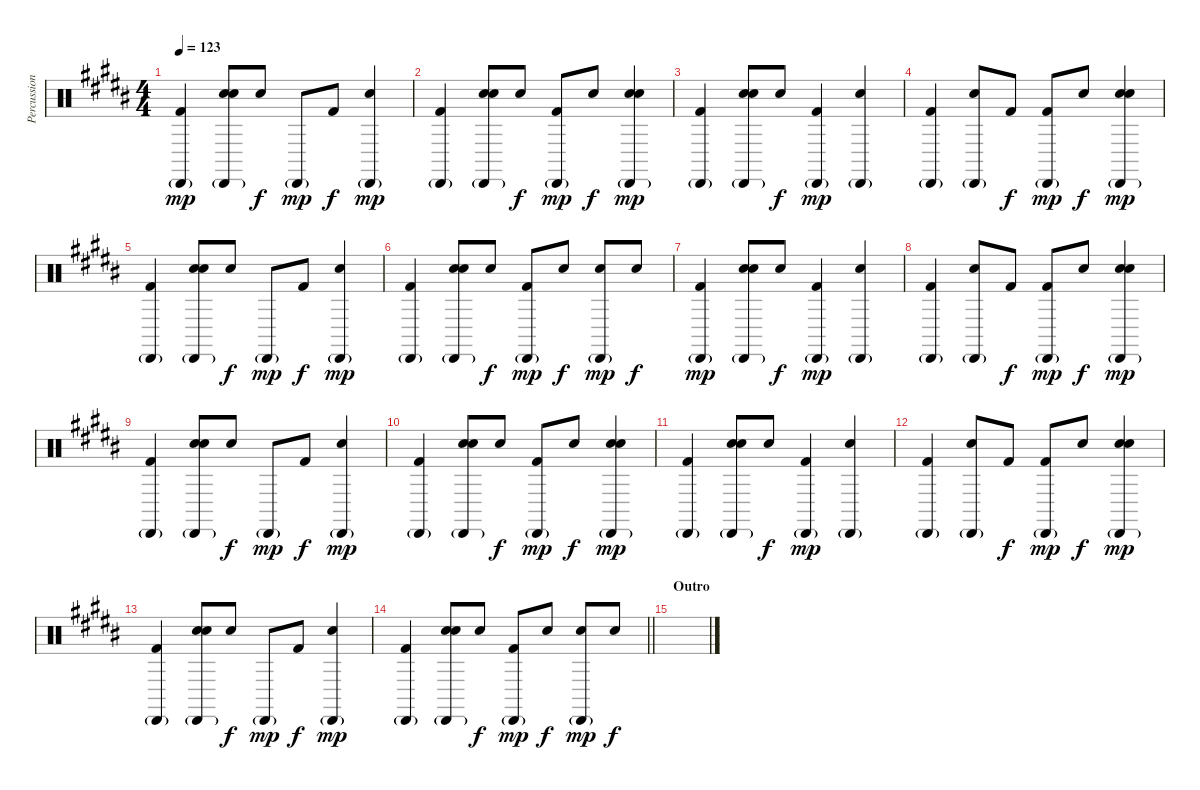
\track ("Percussion" "Percussion") {instrument percussion}
\staff {score}
\articulation defaults
\ts (4 4)
\tempo 123
\clef neutral
\ks g#minor
("Cabasa (hit)"{g} "Kick (hit) 2").4{dy mp} ("Cabasa (hit)"{g} "Hand Clap (hit)" "Snare (hit) 2").8 "Hand Clap (hit)".8{dy f} "Cabasa (hit)"{g}.8{dy mp} "Kick (hit) 2".8{dy f} ("Cabasa (hit)"{g} "Snare (hit) 2").4{dy mp} |
("Cabasa (hit)"{g} "Kick (hit) 2").4 ("Cabasa (hit)"{g} "Hand Clap (hit)" "Snare (hit) 2").8 "Hand Clap (hit)".8{dy f} ("Cabasa (hit)"{g} "Kick (hit) 2").8{dy mp} "Hand Clap (hit)".8{dy f} ("Cabasa (hit)"{g} "Hand Clap (hit)" "Snare (hit) 2").4{dy mp} |
("Cabasa (hit)"{g} "Kick (hit) 2").4 ("Cabasa (hit)"{g} "Hand Clap (hit)" "Snare (hit) 2").8 "Hand Clap (hit)".8{dy f} ("Cabasa (hit)"{g} "Kick (hit) 2").4{dy mp} ("Cabasa (hit)"{g} "Snare (hit) 2").4 |
("Cabasa (hit)"{g} "Kick (hit) 2").4 ("Cabasa (hit)"{g} "Snare (hit) 2").8 "Kick (hit) 2".8{dy f} ("Cabasa (hit)"{g} "Kick (hit) 2").8{dy mp} "Hand Clap (hit)".8{dy f} ("Cabasa (hit)"{g} "Hand Clap (hit)" "Snare (hit) 2").4{dy mp} |
("Cabasa (hit)"{g} "Kick (hit) 2").4 ("Cabasa (hit)"{g} "Hand Clap (hit)" "Snare (hit) 2").8 "Hand Clap (hit)".8{dy f} "Cabasa (hit)"{g}.8{dy mp} "Kick (hit) 2".8{dy f} ("Cabasa (hit)"{g} "Snare (hit) 2").4{dy mp} |
("Cabasa (hit)"{g} "Kick (hit) 2").4 ("Cabasa (hit)"{g} "Hand Clap (hit)" "Snare (hit) 2").8 "Hand Clap (hit)".8{dy f} ("Cabasa (hit)"{g} "Kick (hit) 2").8{dy mp} "Hand Clap (hit)".8{dy f} ("Cabasa (hit)"{g} "Snare (hit) 2").8{dy mp} "Hand Clap (hit)".8{dy f} |
("Cabasa (hit)"{g} "Kick (hit) 2").4{dy mp} ("Cabasa (hit)"{g} "Hand Clap (hit)" "Snare (hit) 2").8 "Hand Clap (hit)".8{dy f} ("Cabasa (hit)"{g} "Kick (hit) 2").4{dy mp} ("Cabasa (hit)"{g} "Snare (hit) 2").4 |
("Cabasa (hit)"{g} "Kick (hit) 2").4 ("Cabasa (hit)"{g} "Snare (hit) 2").8 "Kick (hit) 2".8{dy f} ("Cabasa (hit)"{g} "Kick (hit) 2").8{dy mp} "Hand Clap (hit)".8{dy f} ("Cabasa (hit)"{g} "Hand Clap (hit)" "Snare (hit) 2").4{dy mp} |
("Cabasa (hit)"{g} "Kick (hit) 2").4 ("Cabasa (hit)"{g} "Hand Clap (hit)" "Snare (hit) 2").8 "Hand Clap (hit)".8{dy f} "Cabasa (hit)"{g}.8{dy mp} "Kick (hit) 2".8{dy f} ("Cabasa (hit)"{g} "Snare (hit) 2").4{dy mp} |
("Cabasa (hit)"{g} "Kick (hit) 2").4 ("Cabasa (hit)"{g} "Hand Clap (hit)" "Snare (hit) 2").8 "Hand Clap (hit)".8{dy f} ("Cabasa (hit)"{g} "Kick (hit) 2").8{dy mp} "Hand Clap (hit)".8{dy f} ("Cabasa (hit)"{g} "Hand Clap (hit)" "Snare (hit) 2").4{dy mp} |
("Cabasa (hit)"{g} "Kick (hit) 2").4 ("Cabasa (hit)"{g} "Hand Clap (hit)" "Snare (hit) 2").8 "Hand Clap (hit)".8{dy f} ("Cabasa (hit)"{g} "Kick (hit) 2").4{dy mp} ("Cabasa (hit)"{g} "Snare (hit) 2").4 |
("Cabasa (hit)"{g} "Kick (hit) 2").4 ("Cabasa (hit)"{g} "Snare (hit) 2").8 "Kick (hit) 2".8{dy f} ("Cabasa (hit)"{g} "Kick (hit) 2").8{dy mp} "Hand Clap (hit)".8{dy f} ("Cabasa (hit)"{g} "Hand Clap (hit)" "Snare (hit) 2").4{dy mp} |
("Cabasa (hit)"{g} "Kick (hit) 2").4 ("Cabasa (hit)"{g} "Hand Clap (hit)" "Snare (hit) 2").8 "Hand Clap (hit)".8{dy f} "Cabasa (hit)"{g}.8{dy mp} "Kick (hit) 2".8{dy f} ("Cabasa (hit)"{g} "Snare (hit) 2").4{dy mp} |
\barLineRight lightlight
("Cabasa (hit)"{g} "Kick (hit) 2").4 ("Cabasa (hit)"{g} "Hand Clap (hit)" "Snare (hit) 2").8 "Hand Clap (hit)".8{dy f} ("Cabasa (hit)"{g} "Kick (hit) 2").8{dy mp} "Hand Clap (hit)".8{dy f} ("Cabasa (hit)"{g} "Snare (hit) 2").8{dy mp} "Hand Clap (hit)".8{dy f} |
\section ("" "Outro")
